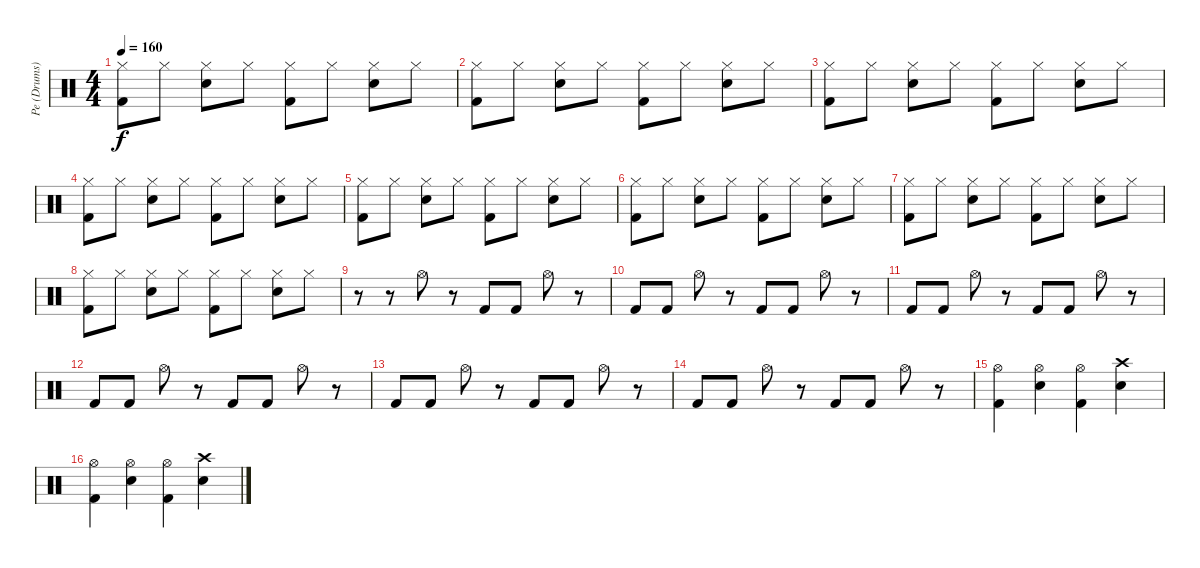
\track ("Pe (Drums)" "Pe (Drums)") {instrument percussion}
\staff {score}
\articulation defaults
\ts (4 4)
\tempo 160
\clef neutral
\ks c
("Hi-Hat (closed)" "Kick (hit) 2").8{dy f} "Hi-Hat (closed)".8 ("Hi-Hat (closed)" "Snare (hit) 2").8 "Hi-Hat (closed)".8 ("Hi-Hat (closed)" "Kick (hit) 2").8 "Hi-Hat (closed)".8 ("Hi-Hat (closed)" "Snare (hit) 2").8 "Hi-Hat (closed)".8 |
("Hi-Hat (closed)" "Kick (hit) 2").8 "Hi-Hat (closed)".8 ("Hi-Hat (closed)" "Snare (hit) 2").8 "Hi-Hat (closed)".8 ("Hi-Hat (closed)" "Kick (hit) 2").8 "Hi-Hat (closed)".8 ("Hi-Hat (closed)" "Snare (hit) 2").8 "Hi-Hat (closed)".8 |
("Hi-Hat (closed)" "Kick (hit) 2").8 "Hi-Hat (closed)".8 ("Hi-Hat (closed)" "Snare (hit) 2").8 "Hi-Hat (closed)".8 ("Hi-Hat (closed)" "Kick (hit) 2").8 "Hi-Hat (closed)".8 ("Hi-Hat (closed)" "Snare (hit) 2").8 "Hi-Hat (closed)".8 |
("Hi-Hat (closed)" "Kick (hit) 2").8 "Hi-Hat (closed)".8 ("Hi-Hat (closed)" "Snare (hit) 2").8 "Hi-Hat (closed)".8 ("Hi-Hat (closed)" "Kick (hit) 2").8 "Hi-Hat (closed)".8 ("Hi-Hat (closed)" "Snare (hit) 2").8 "Hi-Hat (closed)".8 |
("Hi-Hat (closed)" "Kick (hit) 2").8 "Hi-Hat (closed)".8 ("Hi-Hat (closed)" "Snare (hit) 2").8 "Hi-Hat (closed)".8 ("Hi-Hat (closed)" "Kick (hit) 2").8 "Hi-Hat (closed)".8 ("Hi-Hat (closed)" "Snare (hit) 2").8 "Hi-Hat (closed)".8 |
("Hi-Hat (closed)" "Kick (hit) 2").8 "Hi-Hat (closed)".8 ("Hi-Hat (closed)" "Snare (hit) 2").8 "Hi-Hat (closed)".8 ("Hi-Hat (closed)" "Kick (hit) 2").8 "Hi-Hat (closed)".8 ("Hi-Hat (closed)" "Snare (hit) 2").8 "Hi-Hat (closed)".8 |
("Hi-Hat (closed)" "Kick (hit) 2").8 "Hi-Hat (closed)".8 ("Hi-Hat (closed)" "Snare (hit) 2").8 "Hi-Hat (closed)".8 ("Hi-Hat (closed)" "Kick (hit) 2").8 "Hi-Hat (closed)".8 ("Hi-Hat (closed)" "Snare (hit) 2").8 "Hi-Hat (closed)".8 |
("Hi-Hat (closed)" "Kick (hit) 2").8 "Hi-Hat (closed)".8 ("Hi-Hat (closed)" "Snare (hit) 2").8 "Hi-Hat (closed)".8 ("Hi-Hat (closed)" "Kick (hit) 2").8 "Hi-Hat (closed)".8 ("Hi-Hat (closed)" "Snare (hit) 2").8 "Hi-Hat (closed)".8 |
r.8 r.8 "Hi-Hat (open)".8 r.8 "Kick (hit) 2".8 "Kick (hit) 2".8 "Hi-Hat (open)".8 r.8 |
"Kick (hit) 2".8 "Kick (hit) 2".8 "Hi-Hat (open)".8 r.8 "Kick (hit) 2".8 "Kick (hit) 2".8 "Hi-Hat (open)".8 r.8 |
"Kick (hit) 2".8 "Kick (hit) 2".8 "Hi-Hat (open)".8 r.8 "Kick (hit) 2".8 "Kick (hit) 2".8 "Hi-Hat (open)".8 r.8 |
"Kick (hit) 2".8 "Kick (hit) 2".8 "Hi-Hat (open)".8 r.8 "Kick (hit) 2".8 "Kick (hit) 2".8 "Hi-Hat (open)".8 r.8 |
"Kick (hit) 2".8 "Kick (hit) 2".8 "Hi-Hat (open)".8 r.8 "Kick (hit) 2".8 "Kick (hit) 2".8 "Hi-Hat (open)".8 r.8 |
"Kick (hit) 2".8 "Kick (hit) 2".8 "Hi-Hat (open)".8 r.8 "Kick (hit) 2".8 "Kick (hit) 2".8 "Hi-Hat (open)".8 r.8 |
("Hi-Hat (open)" "Kick (hit) 2").4 ("Hi-Hat (open)" "Snare (hit) 2").4 ("Hi-Hat (open)" "Kick (hit) 2").4 ("Crash high (hit)" "Snare (hit) 2").4 |
("Hi-Hat (open)" "Kick (hit) 2").4 ("Hi-Hat (open)" "Snare (hit) 2").4 ("Hi-Hat (open)" "Kick (hit) 2").4 ("Crash high (hit)" "Snare (hit) 2").4
